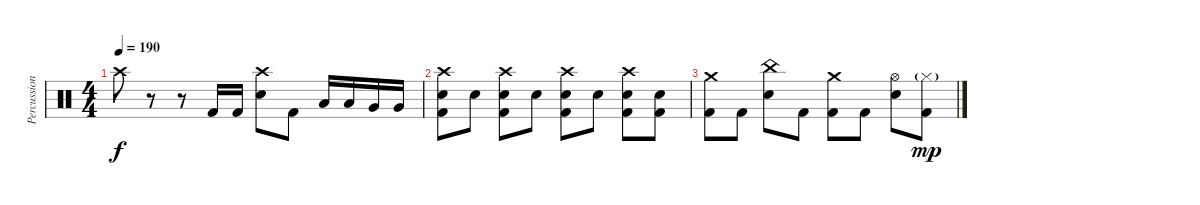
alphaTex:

\track ("Percussion" "Percussion") {instrument percussion}
\staff {score}
\articulation defaults
\ts (4 4)
\tempo 190
\clef neutral
\ks c "Crash high (hit)".8{dy f}
r.8 r.8 "Kick (hit) 2".16 "Kick (hit) 2".16 ("Crash high (hit)" "Electric Snare (hit)").8 "Kick (hit) 2".8 "Low Tom (hit)".16 "Low Tom (hit)".16 "Very Low Tom (hit)".16 "Very Low Tom (hit)".16 |
("Crash high (hit)" "Electric Snare (hit)" "Kick (hit) 2").8 "Electric Snare (hit)".8 ("Crash high (hit)" "Electric Snare (hit)" "Kick (hit) 2").8 "Electric Snare (hit)".8 ("Crash high (hit)" "Electric Snare (hit)" "Kick (hit) 2").8 "Electric Snare (hit)".8 ("Crash high (hit)" "Electric Snare (hit)" "Kick (hit) 2").8 ("Electric Snare (hit)" "Kick (hit) 2").8 |
("Crash medium (hit)" "Kick (hit) 2").8 "Kick (hit) 2".8 ("China (hit)" "Electric Snare (hit)").8 "Kick (hit) 2".8 ("Crash medium (hit)" "Kick (hit) 2").8 "Kick (hit) 2".8 ("Hi-Hat (open)" "Electric Snare (hit)").8 ("Hi-Hat (closed)"{g} "Kick (hit) 2").8{dy mp}
